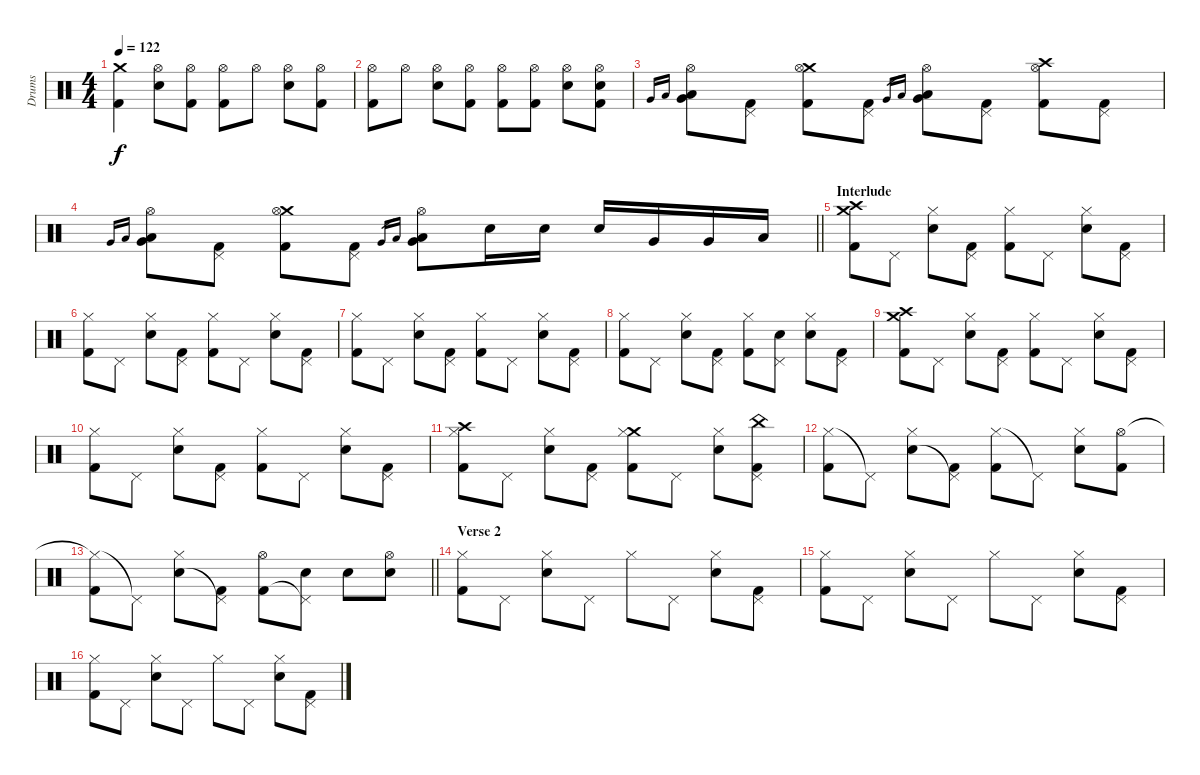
\track ("Drums" "Drums") {instrument percussion}
\staff {score}
\articulation defaults
\ts (4 4)
\tempo 122
\clef neutral
\ks c
("Crash medium (hit)" "Kick (hit) 2").4{dy f} ("Snare (hit) 2" "Hi-Hat (open)").8 ("Hi-Hat (open)" "Kick (hit) 2").8 ("Hi-Hat (open)" "Kick (hit) 2").8 "Hi-Hat (open)".8 ("Snare (hit) 2" "Hi-Hat (open)").8 ("Hi-Hat (open)" "Kick (hit) 2").8 |
("Hi-Hat (open)" "Kick (hit) 2").8 "Hi-Hat (open)".8 ("Snare (hit) 2" "Hi-Hat (open)").8 ("Hi-Hat (open)" "Kick (hit) 2").8 ("Hi-Hat (open)" "Kick (hit) 2").8 ("Hi-Hat (open)" "Kick (hit) 2").8 ("Snare (hit) 2" "Hi-Hat (open)").8 ("Snare (hit) 2" "Hi-Hat (open)" "Kick (hit) 2").8 |
"Very Low Tom (hit)".16{gr onbeat} "Low Floor Tom (hit)".16{gr onbeat} ("Hi-Hat (open)" "Very Low Tom (hit)" "Low Floor Tom (hit)").8 ("Pedal Hi-Hat (hit)" "Kick (hit) 2").8 ("Crash medium (hit)" "Hi-Hat (open)" "Kick (hit) 2").8 ("Pedal Hi-Hat (hit)" "Kick (hit) 2").8 "Very Low Tom (hit)".16{gr} "Low Floor Tom (hit)".16{gr} ("Hi-Hat (open)" "Very Low Tom (hit)" "Low Floor Tom (hit)").8 ("Pedal Hi-Hat (hit)" "Kick (hit) 2").8 ("Crash high (hit)" "Hi-Hat (open)" "Kick (hit) 2").8 ("Pedal Hi-Hat (hit)" "Kick (hit) 2").8 |
\barLineRight lightlight "Very Low Tom (hit)".16{gr onbeat} "Low Floor Tom (hit)".16{gr onbeat}
("Hi-Hat (open)" "Very Low Tom (hit)" "Low Floor Tom (hit)").8 ("Pedal Hi-Hat (hit)" "Kick (hit) 2").8 ("Crash medium (hit)" "Hi-Hat (open)" "Kick (hit) 2").8 ("Pedal Hi-Hat (hit)" "Kick (hit) 2").8 "Very Low Tom (hit)".16{gr} "Low Floor Tom (hit)".16{gr} ("Hi-Hat (open)" "Very Low Tom (hit)" "Low Floor Tom (hit)").8 "Snare (hit) 2".16 "Snare (hit) 2".16 "Snare (hit) 2".16 "Very Low Tom (hit)".16 "Very Low Tom (hit)".16 "Low Floor Tom (hit)".16 |
\section ("" "Interlude")
("Crash medium (hit)" "Crash high (hit)" "Kick (hit) 2").8 "Pedal Hi-Hat (hit)".8 ("Snare (hit) 2" "Hi-Hat (closed)").8 ("Pedal Hi-Hat (hit)" "Kick (hit) 2").8 ("Hi-Hat (closed)" "Kick (hit) 2").8 "Pedal Hi-Hat (hit)".8 ("Snare (hit) 2" "Hi-Hat (closed)").8 ("Pedal Hi-Hat (hit)" "Kick (hit) 2").8 |
("Hi-Hat (closed)" "Kick (hit) 2").8 "Pedal Hi-Hat (hit)".8 ("Snare (hit) 2" "Hi-Hat (closed)").8 ("Pedal Hi-Hat (hit)" "Kick (hit) 2").8 ("Hi-Hat (closed)" "Kick (hit) 2").8 "Pedal Hi-Hat (hit)".8 ("Snare (hit) 2" "Hi-Hat (closed)").8 ("Pedal Hi-Hat (hit)" "Kick (hit) 2").8 |
("Hi-Hat (closed)" "Kick (hit) 2").8 "Pedal Hi-Hat (hit)".8 ("Snare (hit) 2" "Hi-Hat (closed)").8 ("Pedal Hi-Hat (hit)" "Kick (hit) 2").8 ("Hi-Hat (closed)" "Kick (hit) 2").8 "Pedal Hi-Hat (hit)".8 ("Snare (hit) 2" "Hi-Hat (closed)").8 ("Pedal Hi-Hat (hit)" "Kick (hit) 2").8 |
("Hi-Hat (closed)" "Kick (hit) 2").8 "Pedal Hi-Hat (hit)".8 ("Snare (hit) 2" "Hi-Hat (closed)").8 ("Pedal Hi-Hat (hit)" "Kick (hit) 2").8 ("Hi-Hat (closed)" "Kick (hit) 2").8 ("Snare (hit) 2" "Pedal Hi-Hat (hit)").8 ("Snare (hit) 2" "Hi-Hat (closed)").8 ("Pedal Hi-Hat (hit)" "Kick (hit) 2").8 |
("Crash medium (hit)" "Crash high (hit)" "Kick (hit) 2").8 "Pedal Hi-Hat (hit)".8 ("Snare (hit) 2" "Hi-Hat (closed)").8 ("Pedal Hi-Hat (hit)" "Kick (hit) 2").8 ("Hi-Hat (closed)" "Kick (hit) 2").8 "Pedal Hi-Hat (hit)".8 ("Snare (hit) 2" "Hi-Hat (closed)").8 ("Pedal Hi-Hat (hit)" "Kick (hit) 2").8 |
("Hi-Hat (closed)" "Kick (hit) 2").8 "Pedal Hi-Hat (hit)".8 ("Snare (hit) 2" "Hi-Hat (closed)").8 ("Pedal Hi-Hat (hit)" "Kick (hit) 2").8 ("Hi-Hat (closed)" "Kick (hit) 2").8 "Pedal Hi-Hat (hit)".8 ("Snare (hit) 2" "Hi-Hat (closed)").8 ("Pedal Hi-Hat (hit)" "Kick (hit) 2").8 |
("Crash high (hit)" "Hi-Hat (closed)" "Kick (hit) 2").8 "Pedal Hi-Hat (hit)".8 ("Snare (hit) 2" "Hi-Hat (closed)").8 ("Pedal Hi-Hat (hit)" "Kick (hit) 2").8 ("Crash medium (hit)" "Hi-Hat (closed)" "Kick (hit) 2").8 "Pedal Hi-Hat (hit)".8 ("Snare (hit) 2" "Hi-Hat (closed)").8 ("China (hit)" "Pedal Hi-Hat (hit)" "Kick (hit) 2").8 |
("Hi-Hat (closed)" "Kick (hit) 2").8 "Pedal Hi-Hat (hit)"{t}.8 ("Snare (hit) 2" "Hi-Hat (closed)").8 ("Pedal Hi-Hat (hit)"{t} "Kick (hit) 2").8 ("Hi-Hat (closed)" "Kick (hit) 2").8 "Pedal Hi-Hat (hit)"{t}.8 ("Snare (hit) 2" "Hi-Hat (closed)").8 ("Hi-Hat (open)" "Kick (hit) 2").8 |
\barLineRight lightlight
("Hi-Hat (closed)"{t} "Kick (hit) 2").8 "Pedal Hi-Hat (hit)"{t}.8 ("Snare (hit) 2" "Hi-Hat (closed)").8 ("Pedal Hi-Hat (hit)"{t} "Kick (hit) 2").8 ("Hi-Hat (open)" "Kick (hit) 2").8 ("Snare (hit) 2" "Pedal Hi-Hat (hit)"{t}).8 "Snare (hit) 2".8 ("Snare (hit) 2" "Hi-Hat (open)").8 |
\section ("" "Verse 2")
("Hi-Hat (closed)" "Kick (hit) 2").8 "Pedal Hi-Hat (hit)".8 ("Snare (hit) 2" "Hi-Hat (closed)").8 "Pedal Hi-Hat (hit)".8 "Hi-Hat (closed)".8 "Pedal Hi-Hat (hit)".8 ("Snare (hit) 2" "Hi-Hat (closed)").8 ("Pedal Hi-Hat (hit)" "Kick (hit) 2").8 |
("Hi-Hat (closed)" "Kick (hit) 2").8 "Pedal Hi-Hat (hit)".8 ("Snare (hit) 2" "Hi-Hat (closed)").8 "Pedal Hi-Hat (hit)".8 "Hi-Hat (closed)".8 "Pedal Hi-Hat (hit)".8 ("Snare (hit) 2" "Hi-Hat (closed)").8 ("Pedal Hi-Hat (hit)" "Kick (hit) 2").8 |
("Hi-Hat (closed)" "Kick (hit) 2").8 "Pedal Hi-Hat (hit)".8 ("Snare (hit) 2" "Hi-Hat (closed)").8 "Pedal Hi-Hat (hit)".8 "Hi-Hat (closed)".8 "Pedal Hi-Hat (hit)".8 ("Snare (hit) 2" "Hi-Hat (closed)").8 ("Pedal Hi-Hat (hit)" "Kick (hit) 2").8
